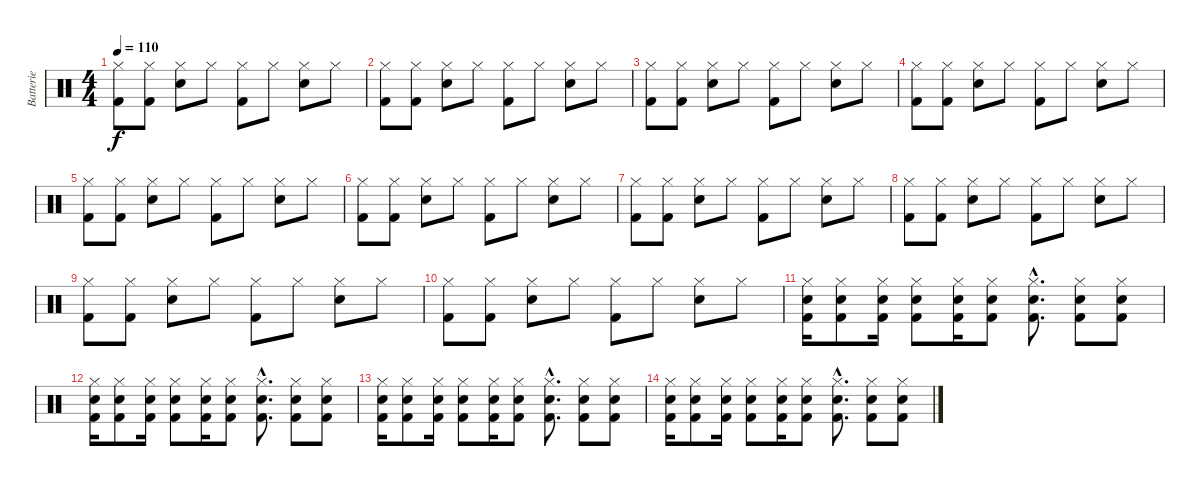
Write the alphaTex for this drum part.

\track ("Batterie" "Batterie") {instrument percussion}
\staff {score}
\articulation defaults
\ts (4 4)
\tempo 110
\clef neutral
\ks c
("Hi-Hat (closed)" "Kick (hit) 2").8{dy f} ("Hi-Hat (closed)" "Kick (hit) 2").8 ("Hi-Hat (closed)" "Snare (hit) 2").8 "Hi-Hat (closed)".8 ("Hi-Hat (closed)" "Kick (hit) 2").8 "Hi-Hat (closed)".8 ("Hi-Hat (closed)" "Snare (hit) 2").8 "Hi-Hat (closed)".8 |
("Hi-Hat (closed)" "Kick (hit) 2").8 ("Hi-Hat (closed)" "Kick (hit) 2").8 ("Hi-Hat (closed)" "Snare (hit) 2").8 "Hi-Hat (closed)".8 ("Hi-Hat (closed)" "Kick (hit) 2").8 "Hi-Hat (closed)".8 ("Hi-Hat (closed)" "Snare (hit) 2").8 "Hi-Hat (closed)".8 |
("Hi-Hat (closed)" "Kick (hit) 2").8 ("Hi-Hat (closed)" "Kick (hit) 2").8 ("Hi-Hat (closed)" "Snare (hit) 2").8 "Hi-Hat (closed)".8 ("Hi-Hat (closed)" "Kick (hit) 2").8 "Hi-Hat (closed)".8 ("Hi-Hat (closed)" "Snare (hit) 2").8 "Hi-Hat (closed)".8 |
("Hi-Hat (closed)" "Kick (hit) 2").8 ("Hi-Hat (closed)" "Kick (hit) 2").8 ("Hi-Hat (closed)" "Snare (hit) 2").8 "Hi-Hat (closed)".8 ("Hi-Hat (closed)" "Kick (hit) 2").8 "Hi-Hat (closed)".8 ("Hi-Hat (closed)" "Snare (hit) 2").8 "Hi-Hat (closed)".8 |
("Hi-Hat (closed)" "Kick (hit) 2").8 ("Hi-Hat (closed)" "Kick (hit) 2").8 ("Hi-Hat (closed)" "Snare (hit) 2").8 "Hi-Hat (closed)".8 ("Hi-Hat (closed)" "Kick (hit) 2").8 "Hi-Hat (closed)".8 ("Hi-Hat (closed)" "Snare (hit) 2").8 "Hi-Hat (closed)".8 |
("Hi-Hat (closed)" "Kick (hit) 2").8 ("Hi-Hat (closed)" "Kick (hit) 2").8 ("Hi-Hat (closed)" "Snare (hit) 2").8 "Hi-Hat (closed)".8 ("Hi-Hat (closed)" "Kick (hit) 2").8 "Hi-Hat (closed)".8 ("Hi-Hat (closed)" "Snare (hit) 2").8 "Hi-Hat (closed)".8 |
("Hi-Hat (closed)" "Kick (hit) 2").8 ("Hi-Hat (closed)" "Kick (hit) 2").8 ("Hi-Hat (closed)" "Snare (hit) 2").8 "Hi-Hat (closed)".8 ("Hi-Hat (closed)" "Kick (hit) 2").8 "Hi-Hat (closed)".8 ("Hi-Hat (closed)" "Snare (hit) 2").8 "Hi-Hat (closed)".8 |
("Hi-Hat (closed)" "Kick (hit) 2").8 ("Hi-Hat (closed)" "Kick (hit) 2").8 ("Hi-Hat (closed)" "Snare (hit) 2").8 "Hi-Hat (closed)".8 ("Hi-Hat (closed)" "Kick (hit) 2").8 "Hi-Hat (closed)".8 ("Hi-Hat (closed)" "Snare (hit) 2").8 "Hi-Hat (closed)".8 |
("Hi-Hat (closed)" "Kick (hit) 2").8 ("Hi-Hat (closed)" "Kick (hit) 2").8 ("Hi-Hat (closed)" "Snare (hit) 2").8 "Hi-Hat (closed)".8 ("Hi-Hat (closed)" "Kick (hit) 2").8 "Hi-Hat (closed)".8 ("Hi-Hat (closed)" "Snare (hit) 2").8 "Hi-Hat (closed)".8 |
("Hi-Hat (closed)" "Kick (hit) 2").8 ("Hi-Hat (closed)" "Kick (hit) 2").8 ("Hi-Hat (closed)" "Snare (hit) 2").8 "Hi-Hat (closed)".8 ("Hi-Hat (closed)" "Kick (hit) 2").8 "Hi-Hat (closed)".8 ("Hi-Hat (closed)" "Snare (hit) 2").8 "Hi-Hat (closed)".8 |
("Hi-Hat (closed)" "Snare (hit) 2" "Kick (hit) 2").16 ("Hi-Hat (closed)" "Snare (hit) 2" "Kick (hit) 2").8 ("Hi-Hat (closed)" "Snare (hit) 2" "Kick (hit) 2").16 ("Hi-Hat (closed)" "Snare (hit) 2" "Kick (hit) 2").8 ("Hi-Hat (closed)" "Snare (hit) 2" "Kick (hit) 2").16 ("Hi-Hat (closed)" "Snare (hit) 2" "Kick (hit) 2").8 ("Hi-Hat (closed)"{hac} "Snare (hit) 2"{hac} "Kick (hit) 2"{hac}).8{d} ("Hi-Hat (closed)" "Snare (hit) 2" "Kick (hit) 2").8 ("Hi-Hat (closed)" "Snare (hit) 2" "Kick (hit) 2").8 |
("Hi-Hat (closed)" "Snare (hit) 2" "Kick (hit) 2").16 ("Hi-Hat (closed)" "Snare (hit) 2" "Kick (hit) 2").8 ("Hi-Hat (closed)" "Snare (hit) 2" "Kick (hit) 2").16 ("Hi-Hat (closed)" "Snare (hit) 2" "Kick (hit) 2").8 ("Hi-Hat (closed)" "Snare (hit) 2" "Kick (hit) 2").16 ("Hi-Hat (closed)" "Snare (hit) 2" "Kick (hit) 2").8 ("Hi-Hat (closed)"{hac} "Snare (hit) 2"{hac} "Kick (hit) 2"{hac}).8{d} ("Hi-Hat (closed)" "Snare (hit) 2" "Kick (hit) 2").8 ("Hi-Hat (closed)" "Snare (hit) 2" "Kick (hit) 2").8 |
("Hi-Hat (closed)" "Snare (hit) 2" "Kick (hit) 2").16 ("Hi-Hat (closed)" "Snare (hit) 2" "Kick (hit) 2").8 ("Hi-Hat (closed)" "Snare (hit) 2" "Kick (hit) 2").16 ("Hi-Hat (closed)" "Snare (hit) 2" "Kick (hit) 2").8 ("Hi-Hat (closed)" "Snare (hit) 2" "Kick (hit) 2").16 ("Hi-Hat (closed)" "Snare (hit) 2" "Kick (hit) 2").8 ("Hi-Hat (closed)"{hac} "Snare (hit) 2"{hac} "Kick (hit) 2"{hac}).8{d} ("Hi-Hat (closed)" "Snare (hit) 2" "Kick (hit) 2").8 ("Hi-Hat (closed)" "Snare (hit) 2" "Kick (hit) 2").8 |
("Hi-Hat (closed)" "Snare (hit) 2" "Kick (hit) 2").16 ("Hi-Hat (closed)" "Snare (hit) 2" "Kick (hit) 2").8 ("Hi-Hat (closed)" "Snare (hit) 2" "Kick (hit) 2").16 ("Hi-Hat (closed)" "Snare (hit) 2" "Kick (hit) 2").8 ("Hi-Hat (closed)" "Snare (hit) 2" "Kick (hit) 2").16 ("Hi-Hat (closed)" "Snare (hit) 2" "Kick (hit) 2").8 ("Hi-Hat (closed)"{hac} "Snare (hit) 2"{hac} "Kick (hit) 2"{hac}).8{d} ("Hi-Hat (closed)" "Snare (hit) 2" "Kick (hit) 2").8 ("Hi-Hat (closed)" "Snare (hit) 2" "Kick (hit) 2").8
